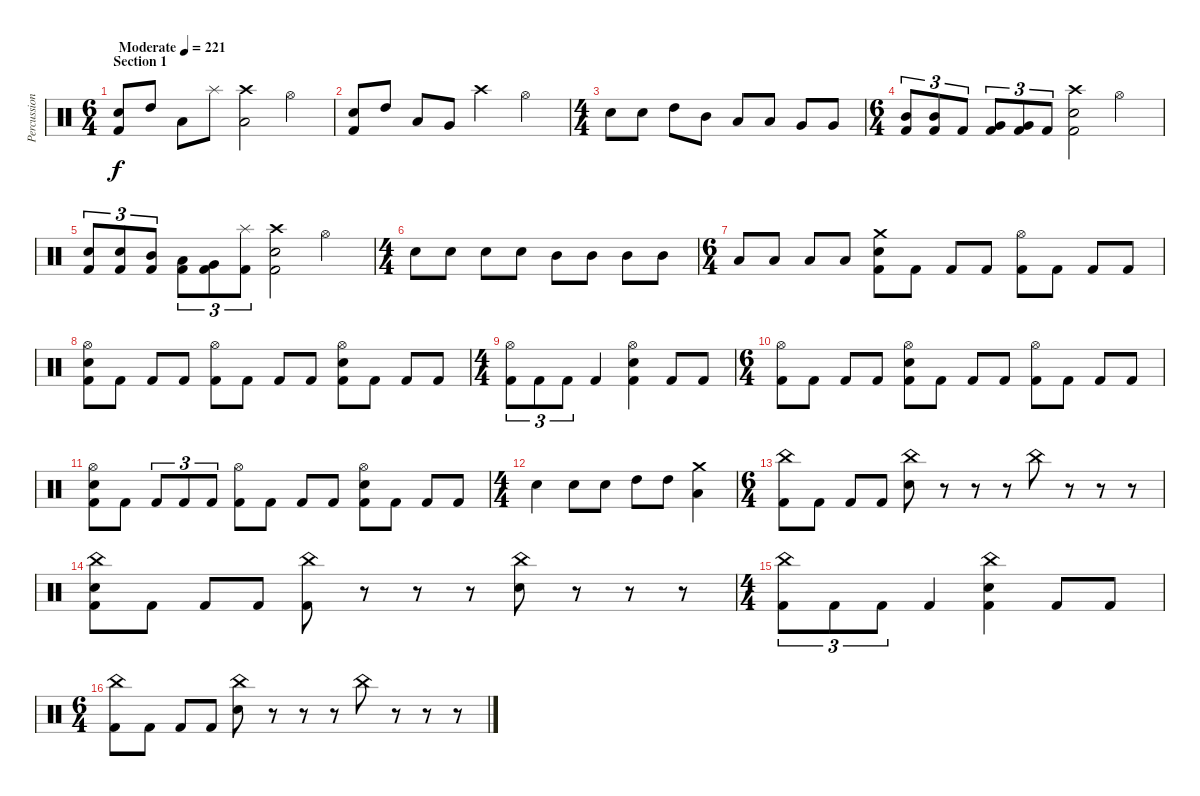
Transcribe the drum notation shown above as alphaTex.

\track ("Percussion" "Percussion") {instrument percussion}
\staff {score}
\articulation defaults
\ts (6 4)
\section ("" "Section 1")
\tempo (221 "Moderate")
\clef neutral
\ks c
("Snare (hit) 2" "Kick (hit) 2").8{dy f} "High Tom (hit)".8 "Low Tom (hit)".8 "Splash (hit)".8 ("Crash high (hit)" "Low Floor Tom (hit)").2 "Hi-Hat (open)".2 |
("Snare (hit) 2" "Kick (hit) 2").8 "High Tom (hit)".8 "Low Tom (hit)".8 "Very Low Tom (hit)".8 "Crash high (hit)".2 "Hi-Hat (open)".2 |
\ts (4 4)
"Snare (hit) 2".8 "Snare (hit) 2".8 "High Tom (hit)".8 "Mid Tom (hit)".8 "Low Tom (hit)".8 "Low Tom (hit)".8 "Very Low Tom (hit)".8 "Very Low Tom (hit)".8 |
\ts (6 4)
("Mid Tom (hit)" "Kick (hit) 2").8{tu (3 2)} ("Mid Tom (hit)" "Kick (hit) 2").8{tu (3 2)} "Kick (hit) 2".8{tu (3 2)} ("Very Low Tom (hit)" "Kick (hit) 2").8{tu (3 2)} ("Very Low Tom (hit)" "Kick (hit) 2").8{tu (3 2)} "Kick (hit) 2".8{tu (3 2)} ("Crash high (hit)" "Snare (hit) 2" "Kick (hit) 2").2 "Hi-Hat (open)".2 |
("Snare (hit) 2" "Kick (hit) 2").8{tu (3 2)} ("Snare (hit) 2" "Kick (hit) 2").8{tu (3 2)} ("Mid Tom (hit)" "Kick (hit) 2").8{tu (3 2)} ("Low Tom (hit)" "Kick (hit) 2").8{tu (3 2)} ("Very Low Tom (hit)" "Kick (hit) 2").8{tu (3 2)} ("Splash (hit)" "Kick (hit) 2").8{tu (3 2)} ("Crash high (hit)" "Snare (hit) 2" "Kick (hit) 2").2 "Hi-Hat (open)".2 |
\ts (4 4)
"Snare (hit) 2".8 "Snare (hit) 2".8 "Snare (hit) 2".8 "Snare (hit) 2".8 "Mid Tom (hit)".8 "Mid Tom (hit)".8 "Mid Tom (hit)".8 "Mid Tom (hit)".8 |
\ts (6 4)
"Low Tom (hit)".8 "Low Tom (hit)".8 "Low Tom (hit)".8 "Low Tom (hit)".8 ("Crash medium (hit)" "Snare (hit) 2" "Kick (hit) 2").8 "Kick (hit) 2".8 "Kick (hit) 2".8 "Kick (hit) 2".8 ("Hi-Hat (open)" "Kick (hit) 2").8 "Kick (hit) 2".8 "Kick (hit) 2".8 "Kick (hit) 2".8 |
("Hi-Hat (open)" "Snare (hit) 2" "Kick (hit) 2").8 "Kick (hit) 2".8 "Kick (hit) 2".8 "Kick (hit) 2".8 ("Hi-Hat (open)" "Kick (hit) 2").8 "Kick (hit) 2".8 "Kick (hit) 2".8 "Kick (hit) 2".8 ("Hi-Hat (open)" "Snare (hit) 2" "Kick (hit) 2").8 "Kick (hit) 2".8 "Kick (hit) 2".8 "Kick (hit) 2".8 |
\ts (4 4)
("Hi-Hat (open)" "Kick (hit) 2").8{tu (3 2)} "Kick (hit) 2".8{tu (3 2)} "Kick (hit) 2".8{tu (3 2)} "Kick (hit) 2".4 ("Hi-Hat (open)" "Snare (hit) 2" "Kick (hit) 2").4 "Kick (hit) 2".8 "Kick (hit) 2".8 |
\ts (6 4)
("Hi-Hat (open)" "Kick (hit) 2").8 "Kick (hit) 2".8 "Kick (hit) 2".8 "Kick (hit) 2".8 ("Hi-Hat (open)" "Snare (hit) 2" "Kick (hit) 2").8 "Kick (hit) 2".8 "Kick (hit) 2".8 "Kick (hit) 2".8 ("Hi-Hat (open)" "Kick (hit) 2").8 "Kick (hit) 2".8 "Kick (hit) 2".8 "Kick (hit) 2".8 |
("Hi-Hat (open)" "Snare (hit) 2" "Kick (hit) 2").8 "Kick (hit) 2".8 "Kick (hit) 2".8{tu (3 2)} "Kick (hit) 2".8{tu (3 2)} "Kick (hit) 2".8{tu (3 2)} ("Hi-Hat (open)" "Kick (hit) 2").8 "Kick (hit) 2".8 "Kick (hit) 2".8 "Kick (hit) 2".8 ("Hi-Hat (open)" "Snare (hit) 2" "Kick (hit) 2").8 "Kick (hit) 2".8 "Kick (hit) 2".8 "Kick (hit) 2".8 |
\ts (4 4)
"Snare (hit) 2".4 "Snare (hit) 2".8 "Snare (hit) 2".8 "High Tom (hit)".8 "High Tom (hit)".8 ("Crash medium (hit)" "Low Tom (hit)").4 |
\ts (6 4)
("China (hit)" "Kick (hit) 2").8 "Kick (hit) 2".8 "Kick (hit) 2".8 "Kick (hit) 2".8 ("China (hit)" "Snare (hit) 2").8 r.8 r.8 r.8 "China (hit)".8 r.8 r.8 r.8 |
("China (hit)" "Snare (hit) 2" "Kick (hit) 2").8 "Kick (hit) 2".8 "Kick (hit) 2".8 "Kick (hit) 2".8 ("China (hit)" "Kick (hit) 2").8 r.8 r.8 r.8 ("China (hit)" "Snare (hit) 2").8 r.8 r.8 r.8 |
\ts (4 4)
("China (hit)" "Kick (hit) 2").8{tu (3 2)} "Kick (hit) 2".8{tu (3 2)} "Kick (hit) 2".8{tu (3 2)} "Kick (hit) 2".4 ("China (hit)" "Snare (hit) 2" "Kick (hit) 2").4 "Kick (hit) 2".8 "Kick (hit) 2".8 |
\ts (6 4)
("China (hit)" "Kick (hit) 2").8 "Kick (hit) 2".8 "Kick (hit) 2".8 "Kick (hit) 2".8 ("China (hit)" "Snare (hit) 2").8 r.8 r.8 r.8 "China (hit)".8 r.8 r.8 r.8
